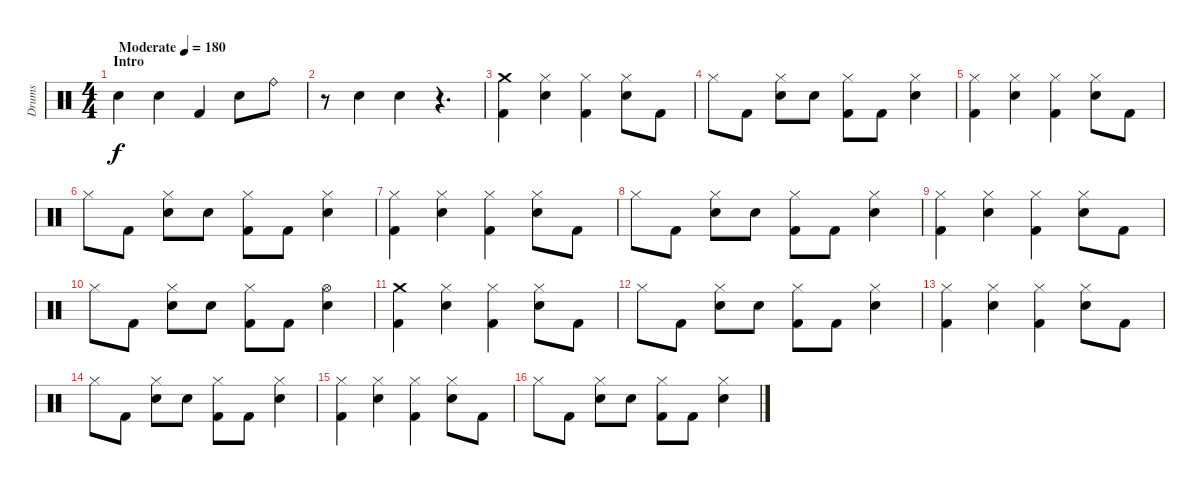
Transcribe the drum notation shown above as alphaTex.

\track ("Drums" "Drums") {instrument percussion}
\staff {score}
\articulation defaults
\ts (4 4)
\section ("" "Intro")
\tempo (180 "Moderate")
\clef neutral
\ks c "Snare (hit) 2".4{dy f} "Snare (hit) 2".4 "Kick (hit) 2".4 "Snare (hit) 2".8 "Ride (bell)".8
|
r.8 "Hand Clap (hit)".4 "Hand Clap (hit)".4 r.4{d} |
("Crash medium (hit)" "Kick (hit) 2").4 ("Hi-Hat (closed)" "Snare (hit) 2").4 ("Hi-Hat (closed)" "Kick (hit) 2").4 ("Hi-Hat (closed)" "Snare (hit) 2").8 "Kick (hit) 2".8 |
"Hi-Hat (closed)".8 "Kick (hit) 2".8 ("Hi-Hat (closed)" "Snare (hit) 2").8 "Snare (hit) 2".8 ("Hi-Hat (closed)" "Kick (hit) 2").8 "Kick (hit) 2".8 ("Hi-Hat (closed)" "Snare (hit) 2").4 |
("Hi-Hat (closed)" "Kick (hit) 2").4 ("Hi-Hat (closed)" "Snare (hit) 2").4 ("Hi-Hat (closed)" "Kick (hit) 2").4 ("Hi-Hat (closed)" "Snare (hit) 2").8 "Kick (hit) 2".8 |
"Hi-Hat (closed)".8 "Kick (hit) 2".8 ("Hi-Hat (closed)" "Snare (hit) 2").8 "Snare (hit) 2".8 ("Hi-Hat (closed)" "Kick (hit) 2").8 "Kick (hit) 2".8 ("Hi-Hat (closed)" "Snare (hit) 2").4 |
("Hi-Hat (closed)" "Kick (hit) 2").4 ("Hi-Hat (closed)" "Snare (hit) 2").4 ("Hi-Hat (closed)" "Kick (hit) 2").4 ("Hi-Hat (closed)" "Snare (hit) 2").8 "Kick (hit) 2".8 |
"Hi-Hat (closed)".8 "Kick (hit) 2".8 ("Hi-Hat (closed)" "Snare (hit) 2").8 "Snare (hit) 2".8 ("Hi-Hat (closed)" "Kick (hit) 2").8 "Kick (hit) 2".8 ("Hi-Hat (closed)" "Snare (hit) 2").4 |
("Hi-Hat (closed)" "Kick (hit) 2").4 ("Hi-Hat (closed)" "Snare (hit) 2").4 ("Hi-Hat (closed)" "Kick (hit) 2").4 ("Hi-Hat (closed)" "Snare (hit) 2").8 "Kick (hit) 2".8 |
"Hi-Hat (closed)".8 "Kick (hit) 2".8 ("Hi-Hat (closed)" "Snare (hit) 2").8 "Snare (hit) 2".8 ("Hi-Hat (closed)" "Kick (hit) 2").8 "Kick (hit) 2".8 ("Hi-Hat (open)" "Snare (hit) 2").4 |
("Crash medium (hit)" "Kick (hit) 2").4 ("Hi-Hat (closed)" "Snare (hit) 2").4 ("Hi-Hat (closed)" "Kick (hit) 2").4 ("Hi-Hat (closed)" "Snare (hit) 2").8 "Kick (hit) 2".8 |
"Hi-Hat (closed)".8 "Kick (hit) 2".8 ("Hi-Hat (closed)" "Snare (hit) 2").8 "Snare (hit) 2".8 ("Hi-Hat (closed)" "Kick (hit) 2").8 "Kick (hit) 2".8 ("Hi-Hat (closed)" "Snare (hit) 2").4 |
("Hi-Hat (closed)" "Kick (hit) 2").4 ("Hi-Hat (closed)" "Snare (hit) 2").4 ("Hi-Hat (closed)" "Kick (hit) 2").4 ("Hi-Hat (closed)" "Snare (hit) 2").8 "Kick (hit) 2".8 |
"Hi-Hat (closed)".8 "Kick (hit) 2".8 ("Hi-Hat (closed)" "Snare (hit) 2").8 "Snare (hit) 2".8 ("Hi-Hat (closed)" "Kick (hit) 2").8 "Kick (hit) 2".8 ("Hi-Hat (closed)" "Snare (hit) 2").4 |
("Hi-Hat (closed)" "Kick (hit) 2").4 ("Hi-Hat (closed)" "Snare (hit) 2").4 ("Hi-Hat (closed)" "Kick (hit) 2").4 ("Hi-Hat (closed)" "Snare (hit) 2").8 "Kick (hit) 2".8 |
"Hi-Hat (closed)".8 "Kick (hit) 2".8 ("Hi-Hat (closed)" "Snare (hit) 2").8 "Snare (hit) 2".8 ("Hi-Hat (closed)" "Kick (hit) 2").8 "Kick (hit) 2".8 ("Hi-Hat (closed)" "Snare (hit) 2").4
